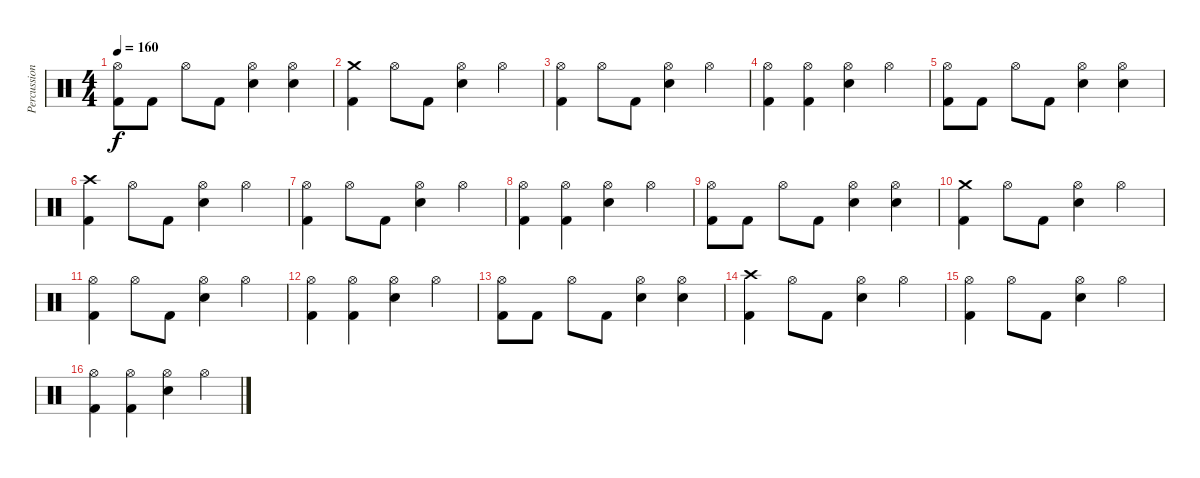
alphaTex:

\track ("Percussioni" "Percussion") {instrument percussion}
\staff {score}
\articulation defaults
\ts (4 4)
\tempo 160
\clef neutral
\ks c
("Hi-Hat (open)" "Kick (hit) 2").8{dy f} "Kick (hit) 2".8 "Hi-Hat (open)".8 "Kick (hit) 2".8 ("Hi-Hat (open)" "Electric Snare (hit)").4 ("Hi-Hat (open)" "Electric Snare (hit)").4 |
("Crash medium (hit)" "Kick (hit) 2").4 "Hi-Hat (open)".8 "Kick (hit) 2".8 ("Hi-Hat (open)" "Electric Snare (hit)").4 "Hi-Hat (open)".4 |
("Hi-Hat (open)" "Kick (hit) 2").4 "Hi-Hat (open)".8 "Kick (hit) 2".8 ("Hi-Hat (open)" "Electric Snare (hit)").4 "Hi-Hat (open)".4 |
("Hi-Hat (open)" "Kick (hit) 2").4 ("Hi-Hat (open)" "Kick (hit) 2").4 ("Hi-Hat (open)" "Electric Snare (hit)").4 "Hi-Hat (open)".4 |
("Hi-Hat (open)" "Kick (hit) 2").8 "Kick (hit) 2".8 "Hi-Hat (open)".8 "Kick (hit) 2".8 ("Hi-Hat (open)" "Electric Snare (hit)").4 ("Hi-Hat (open)" "Electric Snare (hit)").4 |
("Crash high (hit)" "Kick (hit) 2").4 "Hi-Hat (open)".8 "Kick (hit) 2".8 ("Hi-Hat (open)" "Electric Snare (hit)").4 "Hi-Hat (open)".4 |
("Hi-Hat (open)" "Kick (hit) 2").4 "Hi-Hat (open)".8 "Kick (hit) 2".8 ("Hi-Hat (open)" "Electric Snare (hit)").4 "Hi-Hat (open)".4 |
("Hi-Hat (open)" "Kick (hit) 2").4 ("Hi-Hat (open)" "Kick (hit) 2").4 ("Hi-Hat (open)" "Electric Snare (hit)").4 "Hi-Hat (open)".4 |
("Hi-Hat (open)" "Kick (hit) 2").8 "Kick (hit) 2".8 "Hi-Hat (open)".8 "Kick (hit) 2".8 ("Hi-Hat (open)" "Electric Snare (hit)").4 ("Hi-Hat (open)" "Electric Snare (hit)").4 |
("Crash medium (hit)" "Kick (hit) 2").4 "Hi-Hat (open)".8 "Kick (hit) 2".8 ("Hi-Hat (open)" "Electric Snare (hit)").4 "Hi-Hat (open)".4 |
("Hi-Hat (open)" "Kick (hit) 2").4 "Hi-Hat (open)".8 "Kick (hit) 2".8 ("Hi-Hat (open)" "Electric Snare (hit)").4 "Hi-Hat (open)".4 |
("Hi-Hat (open)" "Kick (hit) 2").4 ("Hi-Hat (open)" "Kick (hit) 2").4 ("Hi-Hat (open)" "Electric Snare (hit)").4 "Hi-Hat (open)".4 |
("Hi-Hat (open)" "Kick (hit) 2").8 "Kick (hit) 2".8 "Hi-Hat (open)".8 "Kick (hit) 2".8 ("Hi-Hat (open)" "Electric Snare (hit)").4 ("Hi-Hat (open)" "Electric Snare (hit)").4 |
("Crash high (hit)" "Kick (hit) 2").4 "Hi-Hat (open)".8 "Kick (hit) 2".8 ("Hi-Hat (open)" "Electric Snare (hit)").4 "Hi-Hat (open)".4 |
("Hi-Hat (open)" "Kick (hit) 2").4 "Hi-Hat (open)".8 "Kick (hit) 2".8 ("Hi-Hat (open)" "Electric Snare (hit)").4 "Hi-Hat (open)".4 |
("Hi-Hat (open)" "Kick (hit) 2").4 ("Hi-Hat (open)" "Kick (hit) 2").4 ("Hi-Hat (open)" "Electric Snare (hit)").4 "Hi-Hat (open)".4
